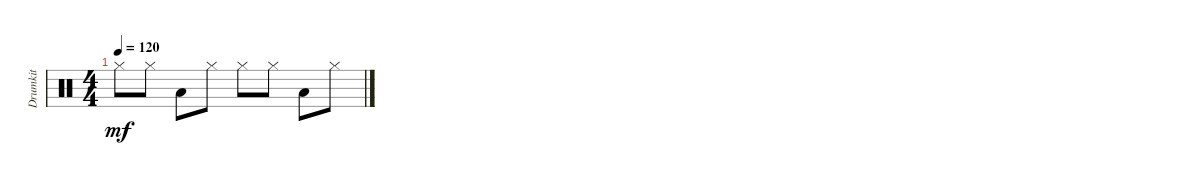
\track ("Drumkit" "Drumkit") {instrument percussion}
\staff {score}
\articulation defaults
\ts (4 4)
\tempo 120
\clef neutral
\ks c "Hi-Hat (closed)".8{dy mf} "Hi-Hat (closed)".8 "Low Tom (hit)".8 "Hi-Hat (closed)".8 "Hi-Hat (closed)".8 "Hi-Hat (closed)".8 "Low Tom (hit)".8 "Hi-Hat (closed)".8
